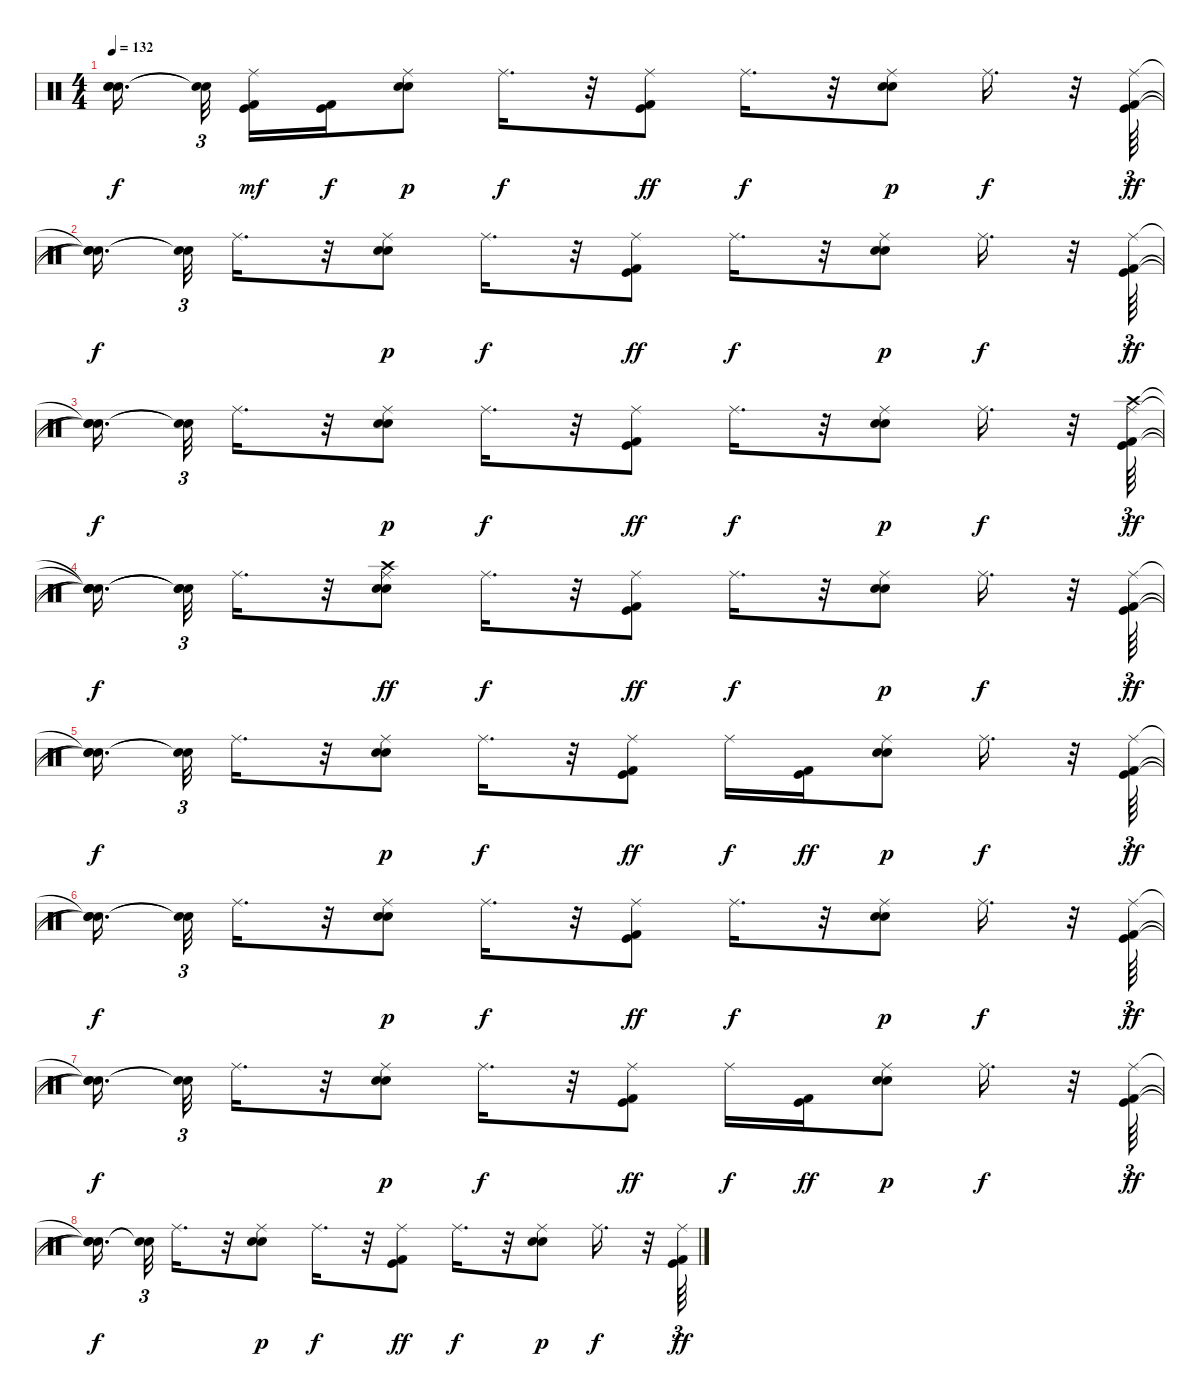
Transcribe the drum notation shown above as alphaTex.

\track "" {instrument percussion}
\staff {score}
\articulation defaults
\ts (4 4)
\tempo 132
\clef neutral
\ks c
("Snare (hit)"{t} "Snare (hit)"{t} "Snare (hit)"{t}).16{d dy f beam splitsecondary} ("Snare (hit)"{t} "Snare (hit)"{t}).32{tu (3 2) beam splitsecondary} ("Kick (hit) 2" "Kick (hit)" "Ride (middle)").16{dy mf} ("Kick (hit)" "Kick (hit) 2").16{dy f} ("Electric Snare (hit)" "Snare (hit) 2" "Ride (middle)").8{dy p} "Ride (middle)".16{d dy f} r.32 ("Kick (hit) 2" "Kick (hit)" "Ride (middle)").8{dy ff} "Ride (middle)".16{d dy f} r.32 ("Electric Snare (hit)" "Snare (hit) 2" "Ride (middle)").8{dy p} "Ride (middle)".16{d dy f} r.32 ("Kick (hit) 2" "Kick (hit)" "Ride (middle)").64{tu (3 2) dy ff} |
("Snare (hit)"{t} "Snare (hit)"{t} "Snare (hit)"{t}).16{d dy f beam splitsecondary} ("Snare (hit)"{t} "Snare (hit)"{t}).32{tu (3 2)} "Ride (middle)".16{d} r.32 ("Electric Snare (hit)" "Snare (hit) 2" "Ride (middle)").8{dy p} "Ride (middle)".16{d dy f} r.32 ("Kick (hit) 2" "Kick (hit)" "Ride (middle)").8{dy ff} "Ride (middle)".16{d dy f} r.32 ("Electric Snare (hit)" "Snare (hit) 2" "Ride (middle)").8{dy p} "Ride (middle)".16{d dy f} r.32 ("Kick (hit) 2" "Kick (hit)" "Ride (middle)").64{tu (3 2) dy ff} |
("Snare (hit)"{t} "Snare (hit)"{t} "Snare (hit)"{t}).16{d dy f beam splitsecondary} ("Snare (hit)"{t} "Snare (hit)"{t}).32{tu (3 2)} "Ride (middle)".16{d} r.32 ("Electric Snare (hit)" "Snare (hit) 2" "Ride (middle)").8{dy p} "Ride (middle)".16{d dy f} r.32 ("Kick (hit) 2" "Kick (hit)" "Ride (middle)").8{dy ff} "Ride (middle)".16{d dy f} r.32 ("Electric Snare (hit)" "Snare (hit) 2" "Ride (middle)").8{dy p} "Ride (middle)".16{d dy f} r.32 ("Kick (hit) 2" "Kick (hit)" "Crash high (hit)" "Ride (middle)").64{tu (3 2) dy ff} |
("Snare (hit)"{t} "Snare (hit)"{t} "Snare (hit)"{t} "Snare (hit)"{t}).16{d dy f beam splitsecondary} ("Snare (hit)"{t} "Snare (hit)"{t} "Snare (hit)"{t}).32{tu (3 2)} "Ride (middle)".16{d} r.32 ("Electric Snare (hit)" "Snare (hit) 2" "Crash high (hit)" "Ride (middle)").8{dy ff} "Ride (middle)".16{d dy f} r.32 ("Kick (hit) 2" "Kick (hit)" "Ride (middle)").8{dy ff} "Ride (middle)".16{d dy f} r.32 ("Electric Snare (hit)" "Snare (hit) 2" "Ride (middle)").8{dy p} "Ride (middle)".16{d dy f} r.32 ("Kick (hit) 2" "Kick (hit)" "Ride (middle)").64{tu (3 2) dy ff} |
("Snare (hit)"{t} "Snare (hit)"{t} "Snare (hit)"{t}).16{d dy f beam splitsecondary} ("Snare (hit)"{t} "Snare (hit)"{t}).32{tu (3 2)} "Ride (middle)".16{d} r.32 ("Electric Snare (hit)" "Snare (hit) 2" "Ride (middle)").8{dy p} "Ride (middle)".16{d dy f} r.32 ("Kick (hit) 2" "Kick (hit)" "Ride (middle)").8{dy ff} "Ride (middle)".16{dy f} ("Kick (hit) 2" "Kick (hit)").16{dy ff} ("Electric Snare (hit)" "Snare (hit) 2" "Ride (middle)").8{dy p} "Ride (middle)".16{d dy f} r.32 ("Kick (hit) 2" "Kick (hit)" "Ride (middle)").64{tu (3 2) dy ff} |
("Snare (hit)"{t} "Snare (hit)"{t} "Snare (hit)"{t}).16{d dy f beam splitsecondary} ("Snare (hit)"{t} "Snare (hit)"{t}).32{tu (3 2)} "Ride (middle)".16{d} r.32 ("Electric Snare (hit)" "Snare (hit) 2" "Ride (middle)").8{dy p} "Ride (middle)".16{d dy f} r.32 ("Kick (hit) 2" "Kick (hit)" "Ride (middle)").8{dy ff} "Ride (middle)".16{d dy f} r.32 ("Electric Snare (hit)" "Snare (hit) 2" "Ride (middle)").8{dy p} "Ride (middle)".16{d dy f} r.32 ("Kick (hit) 2" "Kick (hit)" "Ride (middle)").64{tu (3 2) dy ff} |
("Snare (hit)"{t} "Snare (hit)"{t} "Snare (hit)"{t}).16{d dy f beam splitsecondary} ("Snare (hit)"{t} "Snare (hit)"{t}).32{tu (3 2)} "Ride (middle)".16{d} r.32 ("Electric Snare (hit)" "Snare (hit) 2" "Ride (middle)").8{dy p} "Ride (middle)".16{d dy f} r.32 ("Kick (hit) 2" "Kick (hit)" "Ride (middle)").8{dy ff} "Ride (middle)".16{dy f} ("Kick (hit) 2" "Kick (hit)").16{dy ff} ("Electric Snare (hit)" "Snare (hit) 2" "Ride (middle)").8{dy p} "Ride (middle)".16{d dy f} r.32 ("Kick (hit) 2" "Kick (hit)" "Ride (middle)").64{tu (3 2) dy ff} |
("Snare (hit)"{t} "Snare (hit)"{t} "Snare (hit)"{t}).16{d dy f beam splitsecondary} ("Snare (hit)"{t} "Snare (hit)"{t}).32{tu (3 2)} "Ride (middle)".16{d} r.32 ("Electric Snare (hit)" "Snare (hit) 2" "Ride (middle)").8{dy p} "Ride (middle)".16{d dy f} r.32 ("Kick (hit) 2" "Kick (hit)" "Ride (middle)").8{dy ff} "Ride (middle)".16{d dy f} r.32 ("Electric Snare (hit)" "Snare (hit) 2" "Ride (middle)").8{dy p} "Ride (middle)".16{d dy f} r.32 ("Kick (hit) 2" "Kick (hit)" "Ride (middle)").64{tu (3 2) dy ff}
